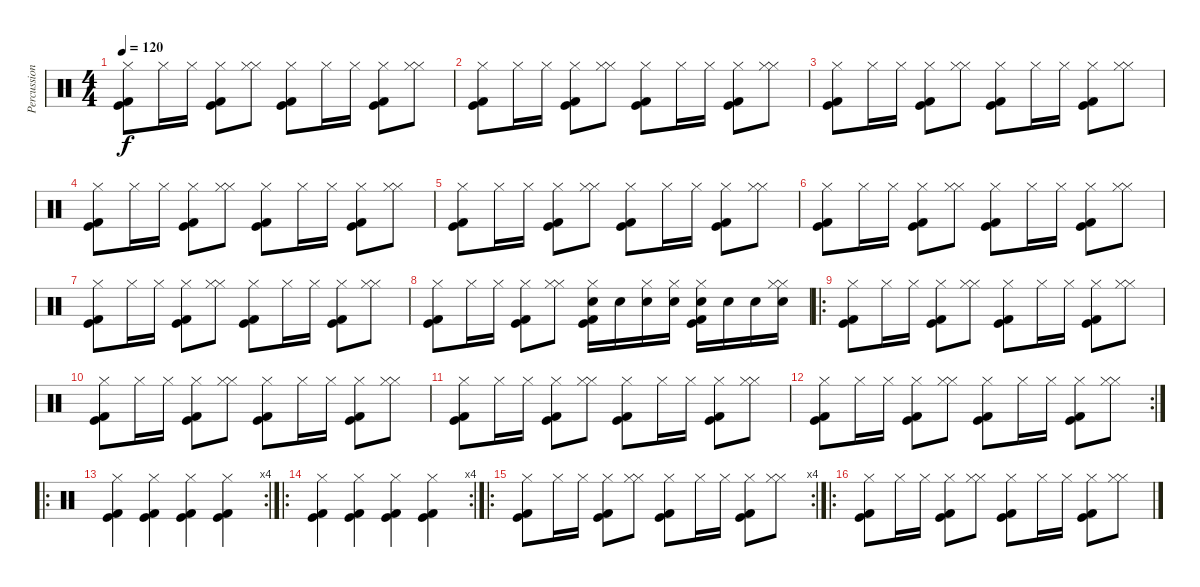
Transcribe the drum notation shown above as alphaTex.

\track ("Percussions" "Percussion") {instrument percussion}
\staff {score}
\articulation defaults
\ts (4 4)
\tempo 120
\clef neutral
\ks c
("Kick (hit) 2" "Kick (hit)" "Hi-Hat (closed)").8{dy f} "Hi-Hat (closed)".16 "Hi-Hat (closed)".16 ("Kick (hit) 2" "Kick (hit)" "Hi-Hat (closed)").8 ("Hi-Hat (closed)" "Hi-Hat (closed)").8 ("Kick (hit) 2" "Kick (hit)" "Hi-Hat (closed)").8 "Hi-Hat (closed)".16 "Hi-Hat (closed)".16 ("Kick (hit) 2" "Kick (hit)" "Hi-Hat (closed)").8 ("Hi-Hat (closed)" "Hi-Hat (closed)").8 |
("Kick (hit) 2" "Kick (hit)" "Hi-Hat (closed)").8 "Hi-Hat (closed)".16 "Hi-Hat (closed)".16 ("Kick (hit) 2" "Kick (hit)" "Hi-Hat (closed)").8 ("Hi-Hat (closed)" "Hi-Hat (closed)").8 ("Kick (hit) 2" "Kick (hit)" "Hi-Hat (closed)").8 "Hi-Hat (closed)".16 "Hi-Hat (closed)".16 ("Kick (hit) 2" "Kick (hit)" "Hi-Hat (closed)").8 ("Hi-Hat (closed)" "Hi-Hat (closed)").8 |
("Kick (hit) 2" "Kick (hit)" "Hi-Hat (closed)").8 "Hi-Hat (closed)".16 "Hi-Hat (closed)".16 ("Kick (hit) 2" "Kick (hit)" "Hi-Hat (closed)").8 ("Hi-Hat (closed)" "Hi-Hat (closed)").8 ("Kick (hit) 2" "Kick (hit)" "Hi-Hat (closed)").8 "Hi-Hat (closed)".16 "Hi-Hat (closed)".16 ("Kick (hit) 2" "Kick (hit)" "Hi-Hat (closed)").8 ("Hi-Hat (closed)" "Hi-Hat (closed)").8 |
("Kick (hit) 2" "Kick (hit)" "Hi-Hat (closed)").8 "Hi-Hat (closed)".16 "Hi-Hat (closed)".16 ("Kick (hit) 2" "Kick (hit)" "Hi-Hat (closed)").8 ("Hi-Hat (closed)" "Hi-Hat (closed)").8 ("Kick (hit) 2" "Kick (hit)" "Hi-Hat (closed)").8 "Hi-Hat (closed)".16 "Hi-Hat (closed)".16 ("Kick (hit) 2" "Kick (hit)" "Hi-Hat (closed)").8 ("Hi-Hat (closed)" "Hi-Hat (closed)").8 |
("Kick (hit) 2" "Kick (hit)" "Hi-Hat (closed)").8 "Hi-Hat (closed)".16 "Hi-Hat (closed)".16 ("Kick (hit) 2" "Kick (hit)" "Hi-Hat (closed)").8 ("Hi-Hat (closed)" "Hi-Hat (closed)").8 ("Kick (hit) 2" "Kick (hit)" "Hi-Hat (closed)").8 "Hi-Hat (closed)".16 "Hi-Hat (closed)".16 ("Kick (hit) 2" "Kick (hit)" "Hi-Hat (closed)").8 ("Hi-Hat (closed)" "Hi-Hat (closed)").8 |
("Kick (hit) 2" "Kick (hit)" "Hi-Hat (closed)").8 "Hi-Hat (closed)".16 "Hi-Hat (closed)".16 ("Kick (hit) 2" "Kick (hit)" "Hi-Hat (closed)").8 ("Hi-Hat (closed)" "Hi-Hat (closed)").8 ("Kick (hit) 2" "Kick (hit)" "Hi-Hat (closed)").8 "Hi-Hat (closed)".16 "Hi-Hat (closed)".16 ("Kick (hit) 2" "Kick (hit)" "Hi-Hat (closed)").8 ("Hi-Hat (closed)" "Hi-Hat (closed)").8 |
("Kick (hit) 2" "Kick (hit)" "Hi-Hat (closed)").8 "Hi-Hat (closed)".16 "Hi-Hat (closed)".16 ("Kick (hit) 2" "Kick (hit)" "Hi-Hat (closed)").8 ("Hi-Hat (closed)" "Hi-Hat (closed)").8 ("Kick (hit) 2" "Kick (hit)" "Hi-Hat (closed)").8 "Hi-Hat (closed)".16 "Hi-Hat (closed)".16 ("Kick (hit) 2" "Kick (hit)" "Hi-Hat (closed)").8 ("Hi-Hat (closed)" "Hi-Hat (closed)").8 |
("Kick (hit) 2" "Kick (hit)" "Hi-Hat (closed)").8 "Hi-Hat (closed)".16 "Hi-Hat (closed)".16 ("Kick (hit) 2" "Kick (hit)" "Hi-Hat (closed)").8 ("Hi-Hat (closed)" "Hi-Hat (closed)").8 ("Kick (hit) 2" "Kick (hit)" "Hi-Hat (closed)" "Electric Snare (hit)").16 "Electric Snare (hit)".16 ("Hi-Hat (closed)" "Electric Snare (hit)").16 ("Hi-Hat (closed)" "Electric Snare (hit)").16 ("Kick (hit) 2" "Kick (hit)" "Hi-Hat (closed)" "Electric Snare (hit)").16 "Electric Snare (hit)".16 "Electric Snare (hit)".16 ("Hi-Hat (closed)" "Hi-Hat (closed)" "Electric Snare (hit)").16 |
\ro
("Kick (hit) 2" "Kick (hit)" "Hi-Hat (closed)").8 "Hi-Hat (closed)".16 "Hi-Hat (closed)".16 ("Kick (hit) 2" "Kick (hit)" "Hi-Hat (closed)").8 ("Hi-Hat (closed)" "Hi-Hat (closed)").8 ("Kick (hit) 2" "Kick (hit)" "Hi-Hat (closed)").8 "Hi-Hat (closed)".16 "Hi-Hat (closed)".16 ("Kick (hit) 2" "Kick (hit)" "Hi-Hat (closed)").8 ("Hi-Hat (closed)" "Hi-Hat (closed)").8 |
("Kick (hit) 2" "Kick (hit)" "Hi-Hat (closed)").8 "Hi-Hat (closed)".16 "Hi-Hat (closed)".16 ("Kick (hit) 2" "Kick (hit)" "Hi-Hat (closed)").8 ("Hi-Hat (closed)" "Hi-Hat (closed)").8 ("Kick (hit) 2" "Kick (hit)" "Hi-Hat (closed)").8 "Hi-Hat (closed)".16 "Hi-Hat (closed)".16 ("Kick (hit) 2" "Kick (hit)" "Hi-Hat (closed)").8 ("Hi-Hat (closed)" "Hi-Hat (closed)").8 |
("Kick (hit) 2" "Kick (hit)" "Hi-Hat (closed)").8 "Hi-Hat (closed)".16 "Hi-Hat (closed)".16 ("Kick (hit) 2" "Kick (hit)" "Hi-Hat (closed)").8 ("Hi-Hat (closed)" "Hi-Hat (closed)").8 ("Kick (hit) 2" "Kick (hit)" "Hi-Hat (closed)").8 "Hi-Hat (closed)".16 "Hi-Hat (closed)".16 ("Kick (hit) 2" "Kick (hit)" "Hi-Hat (closed)").8 ("Hi-Hat (closed)" "Hi-Hat (closed)").8 |
\rc 2
("Kick (hit) 2" "Kick (hit)" "Hi-Hat (closed)").8 "Hi-Hat (closed)".16 "Hi-Hat (closed)".16 ("Kick (hit) 2" "Kick (hit)" "Hi-Hat (closed)").8 ("Hi-Hat (closed)" "Hi-Hat (closed)").8 ("Kick (hit) 2" "Kick (hit)" "Hi-Hat (closed)").8 "Hi-Hat (closed)".16 "Hi-Hat (closed)".16 ("Kick (hit) 2" "Kick (hit)" "Hi-Hat (closed)").8 ("Hi-Hat (closed)" "Hi-Hat (closed)").8 |
\ro
\rc 4
("Kick (hit) 2" "Kick (hit)" "Hi-Hat (closed)").4 ("Kick (hit) 2" "Kick (hit)" "Hi-Hat (closed)").4 ("Kick (hit) 2" "Kick (hit)" "Hi-Hat (closed)").4 ("Kick (hit) 2" "Kick (hit)" "Hi-Hat (closed)").4 |
\ro
\rc 4
("Kick (hit) 2" "Kick (hit)" "Hi-Hat (closed)").4 ("Kick (hit) 2" "Kick (hit)" "Hi-Hat (closed)").4 ("Kick (hit) 2" "Kick (hit)" "Hi-Hat (closed)").4 ("Kick (hit) 2" "Kick (hit)" "Hi-Hat (closed)").4 |
\ro
\rc 4
("Kick (hit) 2" "Kick (hit)" "Hi-Hat (closed)").8 "Hi-Hat (closed)".16 "Hi-Hat (closed)".16 ("Kick (hit) 2" "Kick (hit)" "Hi-Hat (closed)").8 ("Hi-Hat (closed)" "Hi-Hat (closed)").8 ("Kick (hit) 2" "Kick (hit)" "Hi-Hat (closed)").8 "Hi-Hat (closed)".16 "Hi-Hat (closed)".16 ("Kick (hit) 2" "Kick (hit)" "Hi-Hat (closed)").8 ("Hi-Hat (closed)" "Hi-Hat (closed)").8 |
\ro
("Kick (hit) 2" "Kick (hit)" "Hi-Hat (closed)").8 "Hi-Hat (closed)".16 "Hi-Hat (closed)".16 ("Kick (hit) 2" "Kick (hit)" "Hi-Hat (closed)").8 ("Hi-Hat (closed)" "Hi-Hat (closed)").8 ("Kick (hit) 2" "Kick (hit)" "Hi-Hat (closed)").8 "Hi-Hat (closed)".16 "Hi-Hat (closed)".16 ("Kick (hit) 2" "Kick (hit)" "Hi-Hat (closed)").8 ("Hi-Hat (closed)" "Hi-Hat (closed)").8
